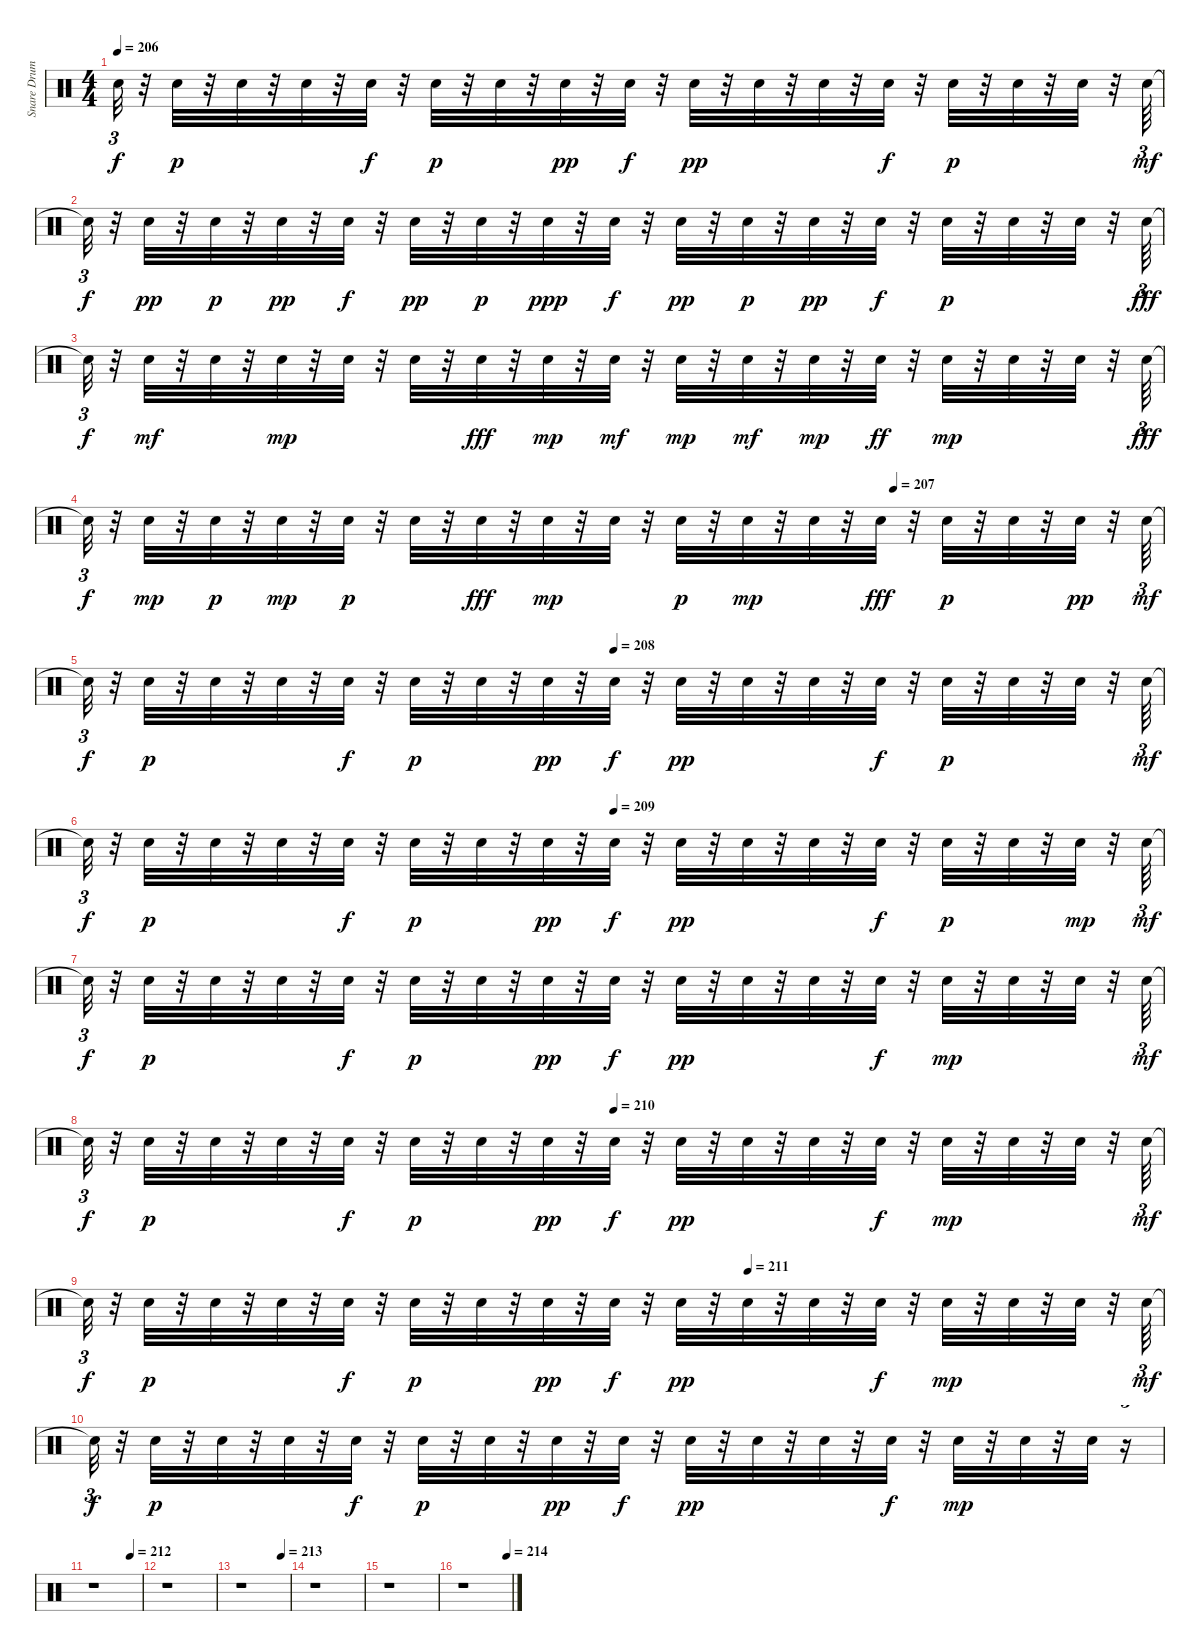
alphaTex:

\track ("Snare Drums" "Snare Drum") {instrument percussion}
\staff {score}
\articulation defaults
\ts (4 4)
\tempo 206
\clef neutral
\ks c "Snare (hit)"{t}.32{tu (3 2) dy f}
r.32 "Hand Clap (hit)".32{dy p} r.32 "Hand Clap (hit)".32 r.32 "Hand Clap (hit)".32 r.32 "Hand Clap (hit)".32{dy f} r.32 "Hand Clap (hit)".32{dy p} r.32 "Hand Clap (hit)".32 r.32 "Hand Clap (hit)".32{dy pp} r.32 "Hand Clap (hit)".32{dy f} r.32 "Hand Clap (hit)".32{dy pp} r.32 "Hand Clap (hit)".32 r.32 "Hand Clap (hit)".32 r.32 "Hand Clap (hit)".32{dy f} r.32 "Hand Clap (hit)".32{dy p} r.32 "Hand Clap (hit)".32 r.32 "Hand Clap (hit)".32 r.32 "Hand Clap (hit)".64{tu (3 2) dy mf} |
"Snare (hit)"{t}.32{tu (3 2) dy f} r.32 "Hand Clap (hit)".32{dy pp} r.32 "Hand Clap (hit)".32{dy p} r.32 "Hand Clap (hit)".32{dy pp} r.32 "Hand Clap (hit)".32{dy f} r.32 "Hand Clap (hit)".32{dy pp} r.32 "Hand Clap (hit)".32{dy p} r.32 "Hand Clap (hit)".32{dy ppp} r.32 "Hand Clap (hit)".32{dy f} r.32 "Hand Clap (hit)".32{dy pp} r.32 "Hand Clap (hit)".32{dy p} r.32 "Hand Clap (hit)".32{dy pp} r.32 "Hand Clap (hit)".32{dy f} r.32 "Hand Clap (hit)".32{dy p} r.32 "Hand Clap (hit)".32 r.32 "Hand Clap (hit)".32 r.32 "Hand Clap (hit)".64{tu (3 2) dy fff} |
"Snare (hit)"{t}.32{tu (3 2) dy f} r.32 "Hand Clap (hit)".32{dy mf} r.32 "Hand Clap (hit)".32 r.32 "Hand Clap (hit)".32{dy mp} r.32 "Hand Clap (hit)".32 r.32 "Hand Clap (hit)".32 r.32 "Hand Clap (hit)".32{dy fff} r.32 "Hand Clap (hit)".32{dy mp} r.32 "Hand Clap (hit)".32{dy mf} r.32 "Hand Clap (hit)".32{dy mp} r.32 "Hand Clap (hit)".32{dy mf} r.32 "Hand Clap (hit)".32{dy mp} r.32 "Hand Clap (hit)".32{dy ff} r.32 "Hand Clap (hit)".32{dy mp} r.32 "Hand Clap (hit)".32 r.32 "Hand Clap (hit)".32 r.32 "Hand Clap (hit)".64{tu (3 2) dy fff} |
\tempo (207 0.75)
"Snare (hit)"{t}.32{tu (3 2) dy f} r.32 "Hand Clap (hit)".32{dy mp} r.32 "Hand Clap (hit)".32{dy p} r.32 "Hand Clap (hit)".32{dy mp} r.32 "Hand Clap (hit)".32{dy p} r.32 "Hand Clap (hit)".32 r.32 "Hand Clap (hit)".32{dy fff} r.32 "Hand Clap (hit)".32{dy mp} r.32 "Hand Clap (hit)".32 r.32 "Hand Clap (hit)".32{dy p} r.32 "Hand Clap (hit)".32{dy mp} r.32 "Hand Clap (hit)".32 r.32 "Hand Clap (hit)".32{dy fff} r.32 "Hand Clap (hit)".32{dy p} r.32 "Hand Clap (hit)".32 r.32 "Hand Clap (hit)".32{dy pp} r.32 "Hand Clap (hit)".64{tu (3 2) dy mf} |
\tempo (208 0.4895833333333333)
"Snare (hit)"{t}.32{tu (3 2) dy f} r.32 "Hand Clap (hit)".32{dy p} r.32 "Hand Clap (hit)".32 r.32 "Hand Clap (hit)".32 r.32 "Hand Clap (hit)".32{dy f} r.32 "Hand Clap (hit)".32{dy p} r.32 "Hand Clap (hit)".32 r.32 "Hand Clap (hit)".32{dy pp} r.32 "Hand Clap (hit)".32{dy f} r.32 "Hand Clap (hit)".32{dy pp} r.32 "Hand Clap (hit)".32 r.32 "Hand Clap (hit)".32 r.32 "Hand Clap (hit)".32{dy f} r.32 "Hand Clap (hit)".32{dy p} r.32 "Hand Clap (hit)".32 r.32 "Hand Clap (hit)".32 r.32 "Hand Clap (hit)".64{tu (3 2) dy mf} |
\tempo (209 0.4895833333333333)
"Snare (hit)"{t}.32{tu (3 2) dy f} r.32 "Hand Clap (hit)".32{dy p} r.32 "Hand Clap (hit)".32 r.32 "Hand Clap (hit)".32 r.32 "Hand Clap (hit)".32{dy f} r.32 "Hand Clap (hit)".32{dy p} r.32 "Hand Clap (hit)".32 r.32 "Hand Clap (hit)".32{dy pp} r.32 "Hand Clap (hit)".32{dy f} r.32 "Hand Clap (hit)".32{dy pp} r.32 "Hand Clap (hit)".32 r.32 "Hand Clap (hit)".32 r.32 "Hand Clap (hit)".32{dy f} r.32 "Hand Clap (hit)".32{dy p} r.32 "Hand Clap (hit)".32 r.32 "Hand Clap (hit)".32{dy mp} r.32 "Hand Clap (hit)".64{tu (3 2) dy mf} |
"Snare (hit)"{t}.32{tu (3 2) dy f} r.32 "Hand Clap (hit)".32{dy p} r.32 "Hand Clap (hit)".32 r.32 "Hand Clap (hit)".32 r.32 "Hand Clap (hit)".32{dy f} r.32 "Hand Clap (hit)".32{dy p} r.32 "Hand Clap (hit)".32 r.32 "Hand Clap (hit)".32{dy pp} r.32 "Hand Clap (hit)".32{dy f} r.32 "Hand Clap (hit)".32{dy pp} r.32 "Hand Clap (hit)".32 r.32 "Hand Clap (hit)".32 r.32 "Hand Clap (hit)".32{dy f} r.32 "Hand Clap (hit)".32{dy mp} r.32 "Hand Clap (hit)".32 r.32 "Hand Clap (hit)".32 r.32 "Hand Clap (hit)".64{tu (3 2) dy mf} |
\tempo (210 0.4895833333333333)
"Snare (hit)"{t}.32{tu (3 2) dy f} r.32 "Hand Clap (hit)".32{dy p} r.32 "Hand Clap (hit)".32 r.32 "Hand Clap (hit)".32 r.32 "Hand Clap (hit)".32{dy f} r.32 "Hand Clap (hit)".32{dy p} r.32 "Hand Clap (hit)".32 r.32 "Hand Clap (hit)".32{dy pp} r.32 "Hand Clap (hit)".32{dy f} r.32 "Hand Clap (hit)".32{dy pp} r.32 "Hand Clap (hit)".32 r.32 "Hand Clap (hit)".32 r.32 "Hand Clap (hit)".32{dy f} r.32 "Hand Clap (hit)".32{dy mp} r.32 "Hand Clap (hit)".32 r.32 "Hand Clap (hit)".32 r.32 "Hand Clap (hit)".64{tu (3 2) dy mf} |
\tempo (211 0.6145833333333334)
"Snare (hit)"{t}.32{tu (3 2) dy f} r.32 "Hand Clap (hit)".32{dy p} r.32 "Hand Clap (hit)".32 r.32 "Hand Clap (hit)".32 r.32 "Hand Clap (hit)".32{dy f} r.32 "Hand Clap (hit)".32{dy p} r.32 "Hand Clap (hit)".32 r.32 "Hand Clap (hit)".32{dy pp} r.32 "Hand Clap (hit)".32{dy f} r.32 "Hand Clap (hit)".32{dy pp} r.32 "Hand Clap (hit)".32 r.32 "Hand Clap (hit)".32 r.32 "Hand Clap (hit)".32{dy f} r.32 "Hand Clap (hit)".32{dy mp} r.32 "Hand Clap (hit)".32 r.32 "Hand Clap (hit)".32 r.32 "Hand Clap (hit)".64{tu (3 2) dy mf} |
"Snare (hit)"{t}.32{tu (3 2) dy f} r.32 "Hand Clap (hit)".32{dy p} r.32 "Hand Clap (hit)".32 r.32 "Hand Clap (hit)".32 r.32 "Hand Clap (hit)".32{dy f} r.32 "Hand Clap (hit)".32{dy p} r.32 "Hand Clap (hit)".32 r.32 "Hand Clap (hit)".32{dy pp} r.32 "Hand Clap (hit)".32{dy f} r.32 "Hand Clap (hit)".32{dy pp} r.32 "Hand Clap (hit)".32 r.32 "Hand Clap (hit)".32 r.32 "Hand Clap (hit)".32{dy f} r.32 "Hand Clap (hit)".32{dy mp} r.32 "Hand Clap (hit)".32 r.32 "Hand Clap (hit)".32 r.16{tu (3 2)} |
\tempo (212 0.7708333333333334)
r.1 |
r.1 |
\tempo (213 0.8333333333333334)
r.1 |
r.1 |
r.1 |
\tempo (214 0.90625)
r.1
